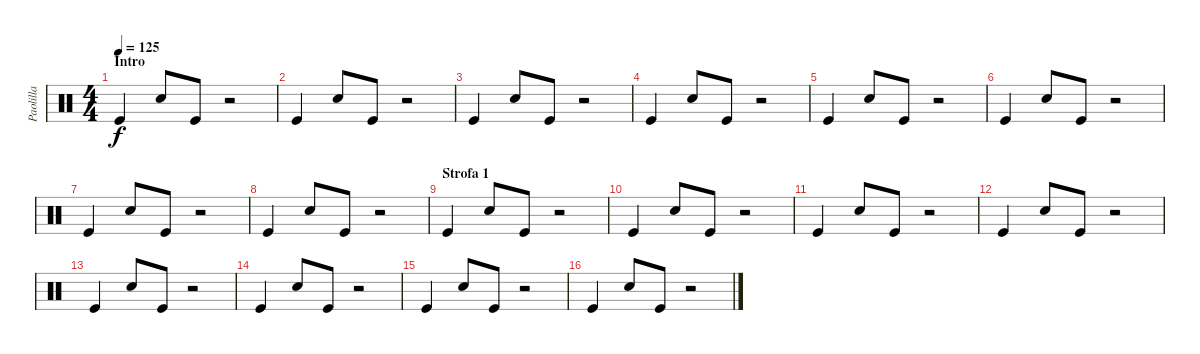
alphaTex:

\track ("Paolilla" "Paolilla") {instrument percussion}
\staff {score}
\articulation defaults
\ts (4 4)
\section ("" "Intro")
\tempo 125
\clef neutral
\ks c "Kick (hit)".4{dy f} "Snare (hit) 2".8 "Kick (hit)".8
r.2 |
"Kick (hit)".4 "Snare (hit) 2".8 "Kick (hit)".8 r.2 |
"Kick (hit)".4 "Snare (hit) 2".8 "Kick (hit)".8 r.2 |
"Kick (hit)".4 "Snare (hit) 2".8 "Kick (hit)".8 r.2 |
"Kick (hit)".4 "Snare (hit) 2".8 "Kick (hit)".8 r.2 |
"Kick (hit)".4 "Snare (hit) 2".8 "Kick (hit)".8 r.2 |
"Kick (hit)".4 "Snare (hit) 2".8 "Kick (hit)".8 r.2 |
"Kick (hit)".4 "Snare (hit) 2".8 "Kick (hit)".8 r.2 |
\section ("" "Strofa 1")
"Kick (hit)".4 "Snare (hit) 2".8 "Kick (hit)".8 r.2 |
"Kick (hit)".4 "Snare (hit) 2".8 "Kick (hit)".8 r.2 |
"Kick (hit)".4 "Snare (hit) 2".8 "Kick (hit)".8 r.2 |
"Kick (hit)".4 "Snare (hit) 2".8 "Kick (hit)".8 r.2 |
"Kick (hit)".4 "Snare (hit) 2".8 "Kick (hit)".8 r.2 |
"Kick (hit)".4 "Snare (hit) 2".8 "Kick (hit)".8 r.2 |
"Kick (hit)".4 "Snare (hit) 2".8 "Kick (hit)".8 r.2 |
"Kick (hit)".4 "Snare (hit) 2".8 "Kick (hit)".8 r.2
